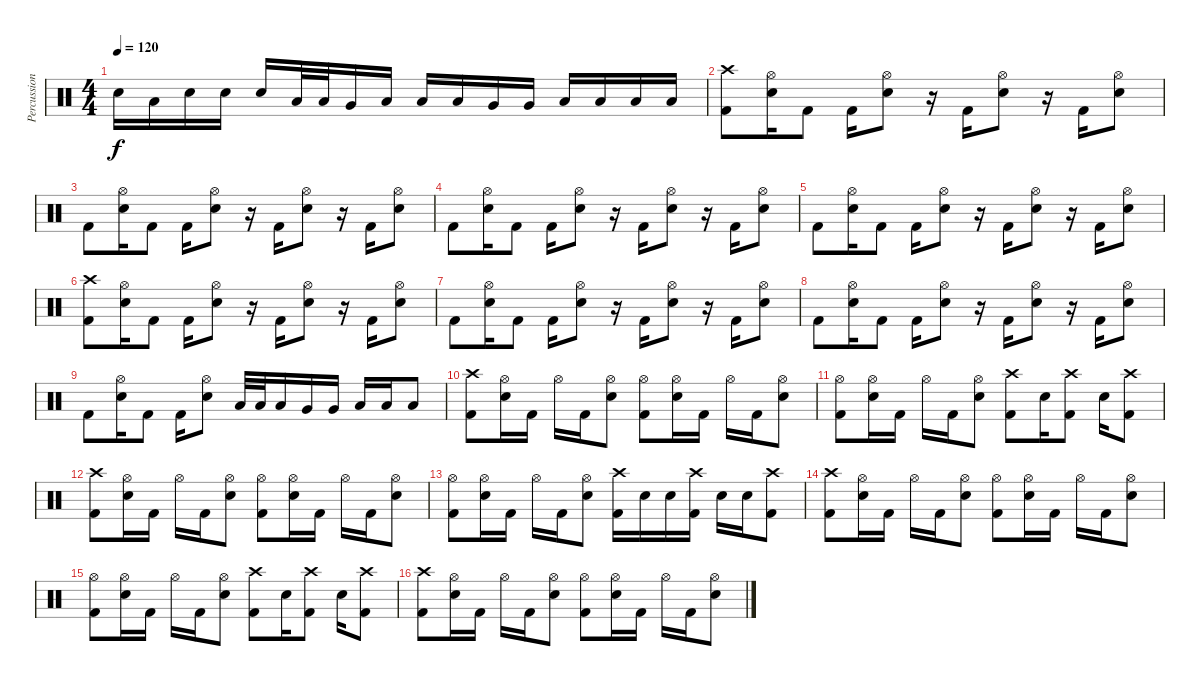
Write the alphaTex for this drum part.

\track ("Percussion" "Percussion") {instrument percussion}
\staff {score}
\articulation defaults
\ts (4 4)
\tempo 120
\clef neutral
\ks c "Snare (hit) 2".16{dy f} "Low Tom (hit)".16 "Snare (hit) 2".16 "Snare (hit) 2".16 "Snare (hit) 2".16 "Low Tom (hit)".32 "Low Tom (hit)".32 "Very Low Tom (hit)".16 "Low Floor Tom (hit)".16 "Low Tom (hit)".16 "Low Tom (hit)".16 "Very Low Tom (hit)".16 "Very Low Tom (hit)".16 "Low Floor Tom (hit)".16 "Low Floor Tom (hit)".16 "Low Floor Tom (hit)".16 "Low Floor Tom (hit)".16
|
("Crash high (hit)" "Kick (hit) 2").8 ("Hi-Hat (open)" "Snare (hit) 2").16 "Kick (hit) 2".8 "Kick (hit) 2".16 ("Hi-Hat (open)" "Snare (hit) 2").8 r.16 "Kick (hit) 2".16 ("Hi-Hat (open)" "Snare (hit) 2").8 r.16 "Kick (hit) 2".16 ("Hi-Hat (open)" "Snare (hit) 2").8 |
"Kick (hit) 2".8 ("Hi-Hat (open)" "Snare (hit) 2").16 "Kick (hit) 2".8 "Kick (hit) 2".16 ("Hi-Hat (open)" "Snare (hit) 2").8 r.16 "Kick (hit) 2".16 ("Hi-Hat (open)" "Snare (hit) 2").8 r.16 "Kick (hit) 2".16 ("Hi-Hat (open)" "Snare (hit) 2").8 |
"Kick (hit) 2".8 ("Hi-Hat (open)" "Snare (hit) 2").16 "Kick (hit) 2".8 "Kick (hit) 2".16 ("Hi-Hat (open)" "Snare (hit) 2").8 r.16 "Kick (hit) 2".16 ("Hi-Hat (open)" "Snare (hit) 2").8 r.16 "Kick (hit) 2".16 ("Hi-Hat (open)" "Snare (hit) 2").8 |
"Kick (hit) 2".8 ("Hi-Hat (open)" "Snare (hit) 2").16 "Kick (hit) 2".8 "Kick (hit) 2".16 ("Hi-Hat (open)" "Snare (hit) 2").8 r.16 "Kick (hit) 2".16 ("Hi-Hat (open)" "Snare (hit) 2").8 r.16 "Kick (hit) 2".16 ("Hi-Hat (open)" "Snare (hit) 2").8 |
("Crash high (hit)" "Kick (hit) 2").8 ("Hi-Hat (open)" "Snare (hit) 2").16 "Kick (hit) 2".8 "Kick (hit) 2".16 ("Hi-Hat (open)" "Snare (hit) 2").8 r.16 "Kick (hit) 2".16 ("Hi-Hat (open)" "Snare (hit) 2").8 r.16 "Kick (hit) 2".16 ("Hi-Hat (open)" "Snare (hit) 2").8 |
"Kick (hit) 2".8 ("Hi-Hat (open)" "Snare (hit) 2").16 "Kick (hit) 2".8 "Kick (hit) 2".16 ("Hi-Hat (open)" "Snare (hit) 2").8 r.16 "Kick (hit) 2".16 ("Hi-Hat (open)" "Snare (hit) 2").8 r.16 "Kick (hit) 2".16 ("Hi-Hat (open)" "Snare (hit) 2").8 |
"Kick (hit) 2".8 ("Hi-Hat (open)" "Snare (hit) 2").16 "Kick (hit) 2".8 "Kick (hit) 2".16 ("Hi-Hat (open)" "Snare (hit) 2").8 r.16 "Kick (hit) 2".16 ("Hi-Hat (open)" "Snare (hit) 2").8 r.16 "Kick (hit) 2".16 ("Hi-Hat (open)" "Snare (hit) 2").8 |
"Kick (hit) 2".8 ("Hi-Hat (open)" "Snare (hit) 2").16 "Kick (hit) 2".8 "Kick (hit) 2".16 ("Hi-Hat (open)" "Snare (hit) 2").8 "Low Tom (hit)".32 "Low Tom (hit)".32 "Low Tom (hit)".16 "Very Low Tom (hit)".16 "Very Low Tom (hit)".16 "Low Floor Tom (hit)".16 "Low Floor Tom (hit)".16 "Low Floor Tom (hit)".8 |
("Crash high (hit)" "Kick (hit) 2").8 ("Hi-Hat (open)" "Snare (hit) 2").16 "Kick (hit) 2".16 "Hi-Hat (open)".16 "Kick (hit) 2".16 ("Hi-Hat (open)" "Snare (hit) 2").8 ("Hi-Hat (open)" "Kick (hit) 2").8 ("Hi-Hat (open)" "Snare (hit) 2").16 "Kick (hit) 2".16 "Hi-Hat (open)".16 "Kick (hit) 2".16 ("Hi-Hat (open)" "Snare (hit) 2").8 |
("Hi-Hat (open)" "Kick (hit) 2").8 ("Hi-Hat (open)" "Snare (hit) 2").16 "Kick (hit) 2".16 "Hi-Hat (open)".16 "Kick (hit) 2".16 ("Hi-Hat (open)" "Snare (hit) 2").8 ("Crash high (hit)" "Kick (hit) 2").8 "Snare (hit) 2".16 ("Crash high (hit)" "Kick (hit) 2").8 "Snare (hit) 2".16 ("Crash high (hit)" "Kick (hit) 2").8 |
("Crash high (hit)" "Kick (hit) 2").8 ("Hi-Hat (open)" "Snare (hit) 2").16 "Kick (hit) 2".16 "Hi-Hat (open)".16 "Kick (hit) 2".16 ("Hi-Hat (open)" "Snare (hit) 2").8 ("Hi-Hat (open)" "Kick (hit) 2").8 ("Hi-Hat (open)" "Snare (hit) 2").16 "Kick (hit) 2".16 "Hi-Hat (open)".16 "Kick (hit) 2".16 ("Hi-Hat (open)" "Snare (hit) 2").8 |
("Hi-Hat (open)" "Kick (hit) 2").8 ("Hi-Hat (open)" "Snare (hit) 2").16 "Kick (hit) 2".16 "Hi-Hat (open)".16 "Kick (hit) 2".16 ("Hi-Hat (open)" "Snare (hit) 2").8 ("Crash high (hit)" "Kick (hit) 2").16 "Snare (hit) 2".16 "Snare (hit) 2".16 ("Crash high (hit)" "Kick (hit) 2").16 "Snare (hit) 2".16 "Snare (hit) 2".16 ("Crash high (hit)" "Kick (hit) 2").8 |
("Crash high (hit)" "Kick (hit) 2").8 ("Hi-Hat (open)" "Snare (hit) 2").16 "Kick (hit) 2".16 "Hi-Hat (open)".16 "Kick (hit) 2".16 ("Hi-Hat (open)" "Snare (hit) 2").8 ("Hi-Hat (open)" "Kick (hit) 2").8 ("Hi-Hat (open)" "Snare (hit) 2").16 "Kick (hit) 2".16 "Hi-Hat (open)".16 "Kick (hit) 2".16 ("Hi-Hat (open)" "Snare (hit) 2").8 |
("Hi-Hat (open)" "Kick (hit) 2").8 ("Hi-Hat (open)" "Snare (hit) 2").16 "Kick (hit) 2".16 "Hi-Hat (open)".16 "Kick (hit) 2".16 ("Hi-Hat (open)" "Snare (hit) 2").8 ("Crash high (hit)" "Kick (hit) 2").8 "Snare (hit) 2".16 ("Crash high (hit)" "Kick (hit) 2").8 "Snare (hit) 2".16 ("Crash high (hit)" "Kick (hit) 2").8 |
("Crash high (hit)" "Kick (hit) 2").8 ("Hi-Hat (open)" "Snare (hit) 2").16 "Kick (hit) 2".16 "Hi-Hat (open)".16 "Kick (hit) 2".16 ("Hi-Hat (open)" "Snare (hit) 2").8 ("Hi-Hat (open)" "Kick (hit) 2").8 ("Hi-Hat (open)" "Snare (hit) 2").16 "Kick (hit) 2".16 "Hi-Hat (open)".16 "Kick (hit) 2".16 ("Hi-Hat (open)" "Snare (hit) 2").8
